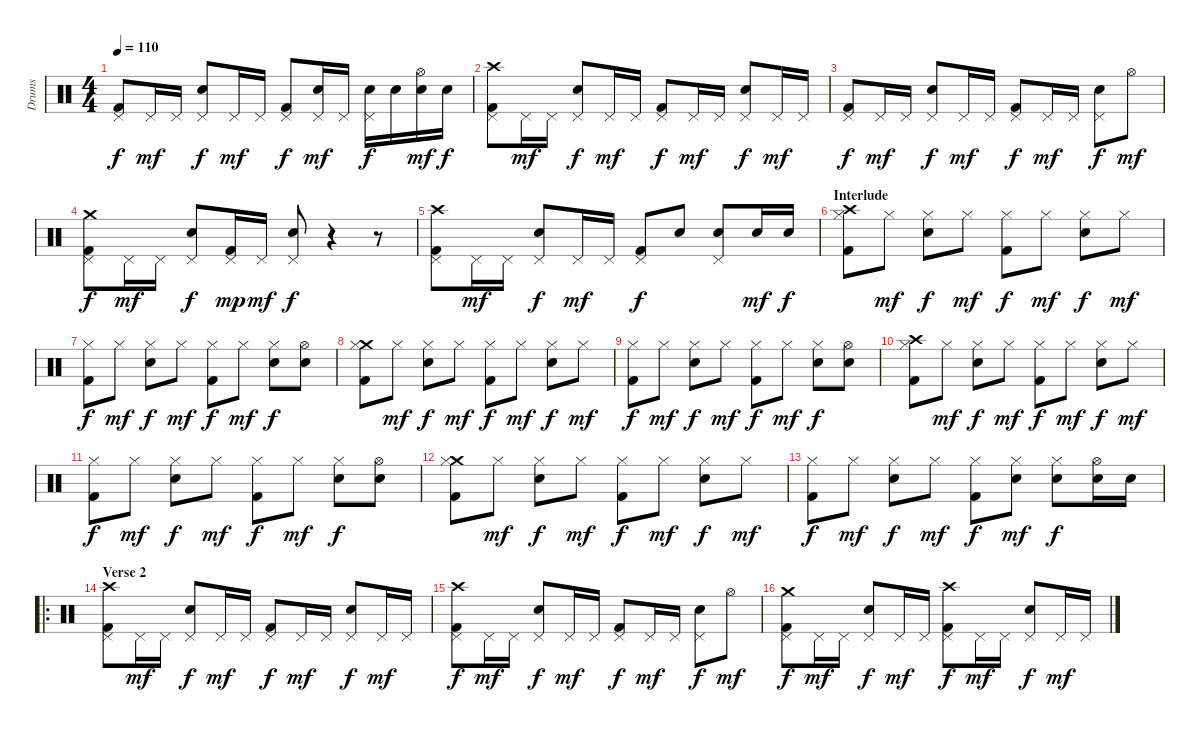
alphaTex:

\track ("Drums" "Drums") {instrument percussion}
\staff {score}
\articulation defaults
\ts (4 4)
\tempo 110
\clef neutral
\ks c
("Pedal Hi-Hat (hit)" "Kick (hit) 2").8{dy f} "Pedal Hi-Hat (hit)".16{dy mf} "Pedal Hi-Hat (hit)".16 ("Pedal Hi-Hat (hit)" "Snare (hit) 2").8{dy f} "Pedal Hi-Hat (hit)".16{dy mf} "Pedal Hi-Hat (hit)".16 ("Pedal Hi-Hat (hit)" "Kick (hit) 2").8{dy f} ("Pedal Hi-Hat (hit)" "Snare (hit) 2").16{dy mf} "Pedal Hi-Hat (hit)".16 ("Pedal Hi-Hat (hit)" "Snare (hit) 2").16{dy f} "Snare (hit) 2".16 ("Hi-Hat (open)" "Snare (hit) 2").16{dy mf} "Snare (hit) 2".16{dy f} |
("Crash high (hit)" "Pedal Hi-Hat (hit)" "Kick (hit) 2").8 "Pedal Hi-Hat (hit)".16{dy mf} "Pedal Hi-Hat (hit)".16 ("Pedal Hi-Hat (hit)" "Snare (hit) 2").8{dy f} "Pedal Hi-Hat (hit)".16{dy mf} "Pedal Hi-Hat (hit)".16 ("Pedal Hi-Hat (hit)" "Kick (hit) 2").8{dy f} "Pedal Hi-Hat (hit)".16{dy mf} "Pedal Hi-Hat (hit)".16 ("Pedal Hi-Hat (hit)" "Snare (hit) 2").8{dy f} "Pedal Hi-Hat (hit)".16{dy mf} "Pedal Hi-Hat (hit)".16 |
("Pedal Hi-Hat (hit)" "Kick (hit) 2").8{dy f} "Pedal Hi-Hat (hit)".16{dy mf} "Pedal Hi-Hat (hit)".16 ("Pedal Hi-Hat (hit)" "Snare (hit) 2").8{dy f} "Pedal Hi-Hat (hit)".16{dy mf} "Pedal Hi-Hat (hit)".16 ("Pedal Hi-Hat (hit)" "Kick (hit) 2").8{dy f} "Pedal Hi-Hat (hit)".16{dy mf} "Pedal Hi-Hat (hit)".16 ("Pedal Hi-Hat (hit)" "Snare (hit) 2").8{dy f} "Hi-Hat (open)".8{dy mf} |
("Crash medium (hit)" "Pedal Hi-Hat (hit)" "Kick (hit) 2").8{dy f} "Pedal Hi-Hat (hit)".16{dy mf} "Pedal Hi-Hat (hit)".16 ("Pedal Hi-Hat (hit)" "Snare (hit) 2").8{dy f} ("Pedal Hi-Hat (hit)" "Kick (hit) 2").16{dy mp} "Pedal Hi-Hat (hit)".16{dy mf} ("Pedal Hi-Hat (hit)" "Snare (hit) 2").8{dy f} r.4 r.8 |
("Crash high (hit)" "Pedal Hi-Hat (hit)" "Kick (hit) 2").8 "Pedal Hi-Hat (hit)".16{dy mf} "Pedal Hi-Hat (hit)".16 ("Pedal Hi-Hat (hit)" "Snare (hit) 2").8{dy f} "Pedal Hi-Hat (hit)".16{dy mf} "Pedal Hi-Hat (hit)".16 ("Pedal Hi-Hat (hit)" "Kick (hit) 2").8{dy f} "Snare (hit) 2".8 ("Pedal Hi-Hat (hit)" "Snare (hit) 2").8 "Snare (hit) 2".16{dy mf} "Snare (hit) 2".16{dy f} |
\section ("" "Interlude")
("Crash high (hit)" "Hi-Hat (closed)" "Kick (hit) 2").8 "Hi-Hat (closed)".8{dy mf} ("Hi-Hat (closed)" "Snare (hit) 2").8{dy f} "Hi-Hat (closed)".8{dy mf} ("Hi-Hat (closed)" "Kick (hit) 2").8{dy f} "Hi-Hat (closed)".8{dy mf} ("Hi-Hat (closed)" "Snare (hit) 2").8{dy f} "Hi-Hat (closed)".8{dy mf} |
("Hi-Hat (closed)" "Kick (hit) 2").8{dy f} "Hi-Hat (closed)".8{dy mf} ("Hi-Hat (closed)" "Snare (hit) 2").8{dy f} "Hi-Hat (closed)".8{dy mf} ("Hi-Hat (closed)" "Kick (hit) 2").8{dy f} "Hi-Hat (closed)".8{dy mf} ("Hi-Hat (closed)" "Snare (hit) 2").8{dy f} ("Hi-Hat (open)" "Snare (hit) 2").8 |
("Crash medium (hit)" "Hi-Hat (closed)" "Kick (hit) 2").8 "Hi-Hat (closed)".8{dy mf} ("Hi-Hat (closed)" "Snare (hit) 2").8{dy f} "Hi-Hat (closed)".8{dy mf} ("Hi-Hat (closed)" "Kick (hit) 2").8{dy f} "Hi-Hat (closed)".8{dy mf} ("Hi-Hat (closed)" "Snare (hit) 2").8{dy f} "Hi-Hat (closed)".8{dy mf} |
("Hi-Hat (closed)" "Kick (hit) 2").8{dy f} "Hi-Hat (closed)".8{dy mf} ("Hi-Hat (closed)" "Snare (hit) 2").8{dy f} "Hi-Hat (closed)".8{dy mf} ("Hi-Hat (closed)" "Kick (hit) 2").8{dy f} "Hi-Hat (closed)".8{dy mf} ("Hi-Hat (closed)" "Snare (hit) 2").8{dy f} ("Hi-Hat (open)" "Snare (hit) 2").8 |
("Crash high (hit)" "Hi-Hat (closed)" "Kick (hit) 2").8 "Hi-Hat (closed)".8{dy mf} ("Hi-Hat (closed)" "Snare (hit) 2").8{dy f} "Hi-Hat (closed)".8{dy mf} ("Hi-Hat (closed)" "Kick (hit) 2").8{dy f} "Hi-Hat (closed)".8{dy mf} ("Hi-Hat (closed)" "Snare (hit) 2").8{dy f} "Hi-Hat (closed)".8{dy mf} |
("Hi-Hat (closed)" "Kick (hit) 2").8{dy f} "Hi-Hat (closed)".8{dy mf} ("Hi-Hat (closed)" "Snare (hit) 2").8{dy f} "Hi-Hat (closed)".8{dy mf} ("Hi-Hat (closed)" "Kick (hit) 2").8{dy f} "Hi-Hat (closed)".8{dy mf} ("Hi-Hat (closed)" "Snare (hit) 2").8{dy f} ("Hi-Hat (open)" "Snare (hit) 2").8 |
("Crash medium (hit)" "Hi-Hat (closed)" "Kick (hit) 2").8 "Hi-Hat (closed)".8{dy mf} ("Hi-Hat (closed)" "Snare (hit) 2").8{dy f} "Hi-Hat (closed)".8{dy mf} ("Hi-Hat (closed)" "Kick (hit) 2").8{dy f} "Hi-Hat (closed)".8{dy mf} ("Hi-Hat (closed)" "Snare (hit) 2").8{dy f} "Hi-Hat (closed)".8{dy mf} |
("Hi-Hat (closed)" "Kick (hit) 2").8{dy f} "Hi-Hat (closed)".8{dy mf} ("Hi-Hat (closed)" "Snare (hit) 2").8{dy f} "Hi-Hat (closed)".8{dy mf} ("Hi-Hat (closed)" "Kick (hit) 2").8{dy f} ("Hi-Hat (closed)" "Snare (hit) 2").8{dy mf} ("Hi-Hat (closed)" "Snare (hit) 2").8{dy f} ("Hi-Hat (open)" "Snare (hit) 2").16 "Snare (hit) 2".16 |
\ro
\section ("" "Verse 2 ")
("Crash high (hit)" "Pedal Hi-Hat (hit)" "Kick (hit) 2").8 "Pedal Hi-Hat (hit)".16{dy mf} "Pedal Hi-Hat (hit)".16 ("Pedal Hi-Hat (hit)" "Snare (hit) 2").8{dy f} "Pedal Hi-Hat (hit)".16{dy mf} "Pedal Hi-Hat (hit)".16 ("Pedal Hi-Hat (hit)" "Kick (hit) 2").8{dy f} "Pedal Hi-Hat (hit)".16{dy mf} "Pedal Hi-Hat (hit)".16 ("Pedal Hi-Hat (hit)" "Snare (hit) 2").8{dy f} "Pedal Hi-Hat (hit)".16{dy mf} "Pedal Hi-Hat (hit)".16 |
("Crash high (hit)" "Pedal Hi-Hat (hit)" "Kick (hit) 2").8{dy f} "Pedal Hi-Hat (hit)".16{dy mf} "Pedal Hi-Hat (hit)".16 ("Pedal Hi-Hat (hit)" "Snare (hit) 2").8{dy f} "Pedal Hi-Hat (hit)".16{dy mf} "Pedal Hi-Hat (hit)".16 ("Pedal Hi-Hat (hit)" "Kick (hit) 2").8{dy f} "Pedal Hi-Hat (hit)".16{dy mf} "Pedal Hi-Hat (hit)".16 ("Pedal Hi-Hat (hit)" "Snare (hit) 2").8{dy f} "Hi-Hat (open)".8{dy mf} |
("Crash medium (hit)" "Pedal Hi-Hat (hit)" "Kick (hit) 2").8{dy f} "Pedal Hi-Hat (hit)".16{dy mf} "Pedal Hi-Hat (hit)".16 ("Pedal Hi-Hat (hit)" "Snare (hit) 2").8{dy f} "Pedal Hi-Hat (hit)".16{dy mf} "Pedal Hi-Hat (hit)".16 ("Crash high (hit)" "Pedal Hi-Hat (hit)" "Kick (hit) 2").8{dy f} "Pedal Hi-Hat (hit)".16{dy mf} "Pedal Hi-Hat (hit)".16 ("Pedal Hi-Hat (hit)" "Snare (hit) 2").8{dy f} "Pedal Hi-Hat (hit)".16{dy mf} "Pedal Hi-Hat (hit)".16
